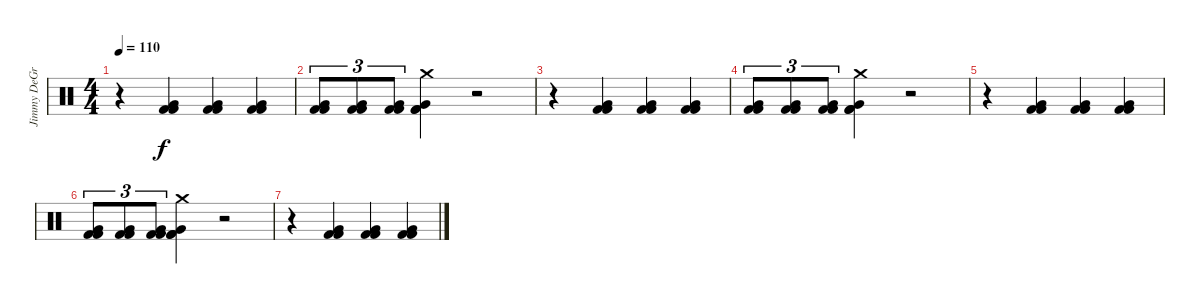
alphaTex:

\track ("Jimmy DeGrasso" "Jimmy DeGr") {instrument percussion}
\staff {score}
\articulation defaults
\ts (4 4)
\tempo 110
\clef neutral
\ks c
r.4{dy f} ("Very Low Tom (hit)" "Kick (hit) 2" "Kick (hit) 2").4 ("Very Low Tom (hit)" "Kick (hit) 2" "Kick (hit) 2").4 ("Very Low Tom (hit)" "Kick (hit) 2" "Kick (hit) 2").4 |
("Very Low Tom (hit)" "Kick (hit) 2" "Kick (hit) 2").8{tu (3 2)} ("Very Low Tom (hit)" "Kick (hit) 2" "Kick (hit) 2").8{tu (3 2)} ("Very Low Tom (hit)" "Kick (hit) 2" "Kick (hit) 2").8{tu (3 2)} ("Crash medium (hit)" "Very Low Tom (hit)" "Kick (hit) 2" "Kick (hit) 2").4 r.2 |
r.4{volume 10} ("Very Low Tom (hit)" "Kick (hit) 2" "Kick (hit) 2").4 ("Very Low Tom (hit)" "Kick (hit) 2" "Kick (hit) 2").4 ("Very Low Tom (hit)" "Kick (hit) 2" "Kick (hit) 2").4 |
("Very Low Tom (hit)" "Kick (hit) 2" "Kick (hit) 2").8{tu (3 2) volume 7} ("Very Low Tom (hit)" "Kick (hit) 2" "Kick (hit) 2").8{tu (3 2)} ("Very Low Tom (hit)" "Kick (hit) 2" "Kick (hit) 2").8{tu (3 2)} ("Crash medium (hit)" "Very Low Tom (hit)" "Kick (hit) 2" "Kick (hit) 2").4 r.2 |
r.4{volume 6} ("Very Low Tom (hit)" "Kick (hit) 2" "Kick (hit) 2").4 ("Very Low Tom (hit)" "Kick (hit) 2" "Kick (hit) 2").4 ("Very Low Tom (hit)" "Kick (hit) 2" "Kick (hit) 2").4 |
("Very Low Tom (hit)" "Kick (hit) 2" "Kick (hit) 2").8{tu (3 2) volume 4} ("Very Low Tom (hit)" "Kick (hit) 2" "Kick (hit) 2").8{tu (3 2)} ("Very Low Tom (hit)" "Kick (hit) 2" "Kick (hit) 2").8{tu (3 2)} ("Crash medium (hit)" "Very Low Tom (hit)" "Kick (hit) 2" "Kick (hit) 2").4 r.2 |
r.4{volume 0} ("Very Low Tom (hit)" "Kick (hit) 2" "Kick (hit) 2").4 ("Very Low Tom (hit)" "Kick (hit) 2" "Kick (hit) 2").4 ("Very Low Tom (hit)" "Kick (hit) 2" "Kick (hit) 2").4
